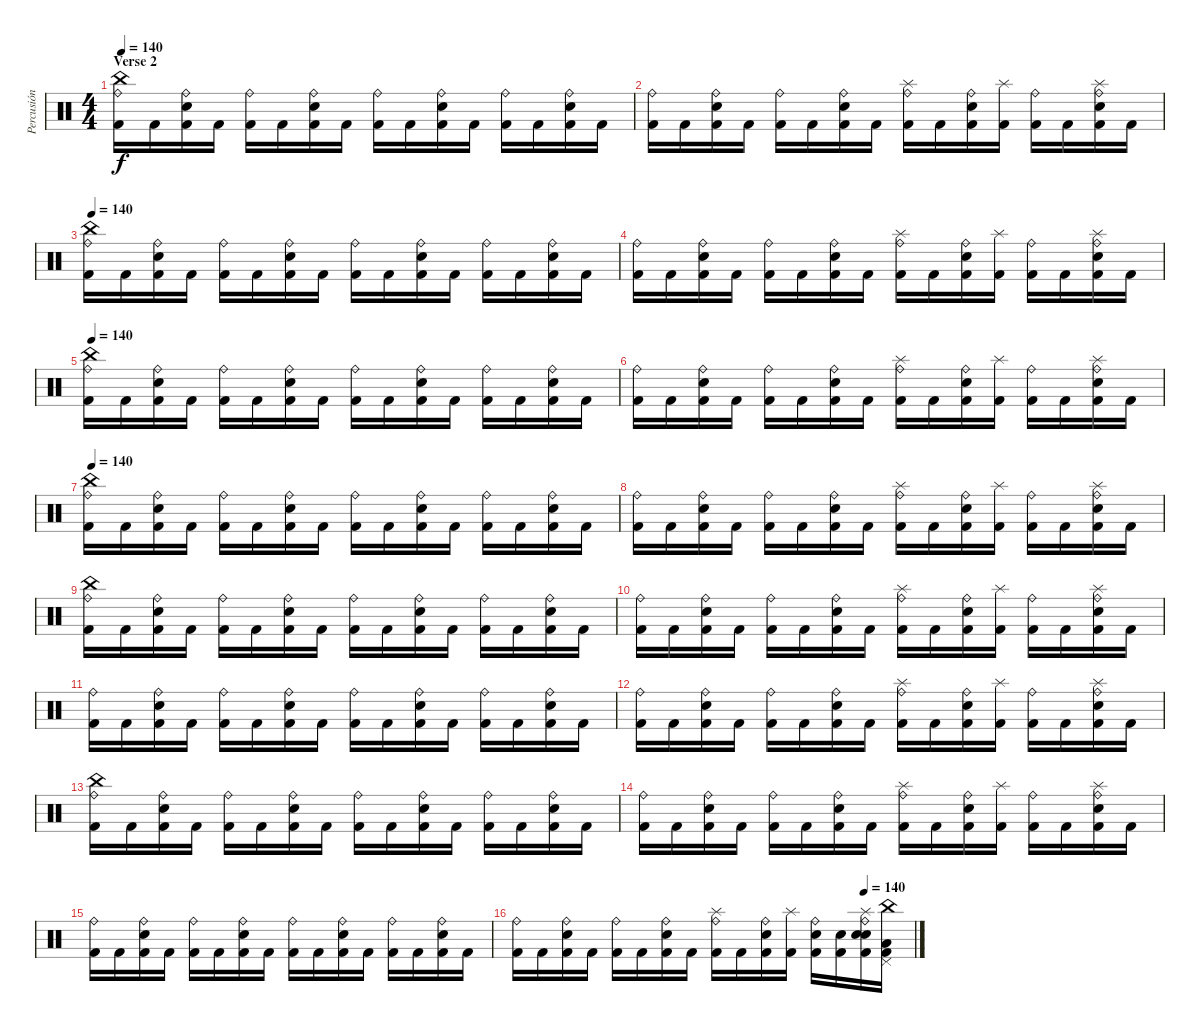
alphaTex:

\track ("Percusión" "Percusión") {instrument percussion}
\staff {score}
\articulation defaults
\ts (4 4)
\section ("" "Verse 2")
\tempo 140
\clef neutral
\ks c
("Ride (bell)" "Kick (hit) 2" "China (hit)").16{dy f} "Kick (hit) 2".16 ("Ride (bell)" "Electric Snare (hit)" "Kick (hit) 2").16 "Kick (hit) 2".16 ("Ride (bell)" "Kick (hit) 2").16 "Kick (hit) 2".16 ("Ride (bell)" "Electric Snare (hit)" "Kick (hit) 2").16 "Kick (hit) 2".16 ("Ride (bell)" "Kick (hit) 2").16 "Kick (hit) 2".16 ("Ride (bell)" "Electric Snare (hit)" "Kick (hit) 2").16 "Kick (hit) 2".16 ("Ride (bell)" "Kick (hit) 2").16 "Kick (hit) 2".16 ("Ride (bell)" "Electric Snare (hit)" "Kick (hit) 2").16 "Kick (hit) 2".16 |
("Ride (bell)" "Kick (hit) 2").16 "Kick (hit) 2".16 ("Ride (bell)" "Electric Snare (hit)" "Kick (hit) 2").16 "Kick (hit) 2".16 ("Ride (bell)" "Kick (hit) 2").16 "Kick (hit) 2".16 ("Ride (bell)" "Electric Snare (hit)" "Kick (hit) 2").16 "Kick (hit) 2".16 ("Ride (bell)" "Kick (hit) 2" "Splash (hit)").16 "Kick (hit) 2".16 ("Ride (bell)" "Electric Snare (hit)" "Kick (hit) 2").16 ("Kick (hit) 2" "Splash (hit)").16 ("Ride (bell)" "Kick (hit) 2").16 "Kick (hit) 2".16 ("Ride (bell)" "Electric Snare (hit)" "Kick (hit) 2" "Splash (hit)").16 "Kick (hit) 2".16 |
\tempo 140
("Ride (bell)" "Kick (hit) 2" "China (hit)").16 "Kick (hit) 2".16 ("Ride (bell)" "Electric Snare (hit)" "Kick (hit) 2").16 "Kick (hit) 2".16 ("Ride (bell)" "Kick (hit) 2").16 "Kick (hit) 2".16 ("Ride (bell)" "Electric Snare (hit)" "Kick (hit) 2").16 "Kick (hit) 2".16 ("Ride (bell)" "Kick (hit) 2").16 "Kick (hit) 2".16 ("Ride (bell)" "Electric Snare (hit)" "Kick (hit) 2").16 "Kick (hit) 2".16 ("Ride (bell)" "Kick (hit) 2").16 "Kick (hit) 2".16 ("Ride (bell)" "Electric Snare (hit)" "Kick (hit) 2").16 "Kick (hit) 2".16 |
("Ride (bell)" "Kick (hit) 2").16 "Kick (hit) 2".16 ("Ride (bell)" "Electric Snare (hit)" "Kick (hit) 2").16 "Kick (hit) 2".16 ("Ride (bell)" "Kick (hit) 2").16 "Kick (hit) 2".16 ("Ride (bell)" "Electric Snare (hit)" "Kick (hit) 2").16 "Kick (hit) 2".16 ("Ride (bell)" "Kick (hit) 2" "Splash (hit)").16 "Kick (hit) 2".16 ("Ride (bell)" "Electric Snare (hit)" "Kick (hit) 2").16 ("Kick (hit) 2" "Splash (hit)").16 ("Ride (bell)" "Kick (hit) 2").16 "Kick (hit) 2".16 ("Ride (bell)" "Electric Snare (hit)" "Kick (hit) 2" "Splash (hit)").16 "Kick (hit) 2".16 |
\tempo 140
("Ride (bell)" "Kick (hit) 2" "China (hit)").16 "Kick (hit) 2".16 ("Ride (bell)" "Electric Snare (hit)" "Kick (hit) 2").16 "Kick (hit) 2".16 ("Ride (bell)" "Kick (hit) 2").16 "Kick (hit) 2".16 ("Ride (bell)" "Electric Snare (hit)" "Kick (hit) 2").16 "Kick (hit) 2".16 ("Ride (bell)" "Kick (hit) 2").16 "Kick (hit) 2".16 ("Ride (bell)" "Electric Snare (hit)" "Kick (hit) 2").16 "Kick (hit) 2".16 ("Ride (bell)" "Kick (hit) 2").16 "Kick (hit) 2".16 ("Ride (bell)" "Electric Snare (hit)" "Kick (hit) 2").16 "Kick (hit) 2".16 |
("Ride (bell)" "Kick (hit) 2").16 "Kick (hit) 2".16 ("Ride (bell)" "Electric Snare (hit)" "Kick (hit) 2").16 "Kick (hit) 2".16 ("Ride (bell)" "Kick (hit) 2").16 "Kick (hit) 2".16 ("Ride (bell)" "Electric Snare (hit)" "Kick (hit) 2").16 "Kick (hit) 2".16 ("Ride (bell)" "Kick (hit) 2" "Splash (hit)").16 "Kick (hit) 2".16 ("Ride (bell)" "Electric Snare (hit)" "Kick (hit) 2").16 ("Kick (hit) 2" "Splash (hit)").16 ("Ride (bell)" "Kick (hit) 2").16 "Kick (hit) 2".16 ("Ride (bell)" "Electric Snare (hit)" "Kick (hit) 2" "Splash (hit)").16 "Kick (hit) 2".16 |
\tempo 140
("Ride (bell)" "Kick (hit) 2" "China (hit)").16 "Kick (hit) 2".16 ("Ride (bell)" "Electric Snare (hit)" "Kick (hit) 2").16 "Kick (hit) 2".16 ("Ride (bell)" "Kick (hit) 2").16 "Kick (hit) 2".16 ("Ride (bell)" "Electric Snare (hit)" "Kick (hit) 2").16 "Kick (hit) 2".16 ("Ride (bell)" "Kick (hit) 2").16 "Kick (hit) 2".16 ("Ride (bell)" "Electric Snare (hit)" "Kick (hit) 2").16 "Kick (hit) 2".16 ("Ride (bell)" "Kick (hit) 2").16 "Kick (hit) 2".16 ("Ride (bell)" "Electric Snare (hit)" "Kick (hit) 2").16 "Kick (hit) 2".16 |
("Ride (bell)" "Kick (hit) 2").16 "Kick (hit) 2".16 ("Ride (bell)" "Electric Snare (hit)" "Kick (hit) 2").16 "Kick (hit) 2".16 ("Ride (bell)" "Kick (hit) 2").16 "Kick (hit) 2".16 ("Ride (bell)" "Electric Snare (hit)" "Kick (hit) 2").16 "Kick (hit) 2".16 ("Ride (bell)" "Kick (hit) 2" "Splash (hit)").16 "Kick (hit) 2".16 ("Ride (bell)" "Electric Snare (hit)" "Kick (hit) 2").16 ("Kick (hit) 2" "Splash (hit)").16 ("Ride (bell)" "Kick (hit) 2").16 "Kick (hit) 2".16 ("Ride (bell)" "Electric Snare (hit)" "Kick (hit) 2" "Splash (hit)").16 "Kick (hit) 2".16 |
("Ride (bell)" "Kick (hit) 2" "China (hit)").16 "Kick (hit) 2".16 ("Ride (bell)" "Electric Snare (hit)" "Kick (hit) 2").16 "Kick (hit) 2".16 ("Ride (bell)" "Kick (hit) 2").16 "Kick (hit) 2".16 ("Ride (bell)" "Electric Snare (hit)" "Kick (hit) 2").16 "Kick (hit) 2".16 ("Ride (bell)" "Kick (hit) 2").16 "Kick (hit) 2".16 ("Ride (bell)" "Electric Snare (hit)" "Kick (hit) 2").16 "Kick (hit) 2".16 ("Ride (bell)" "Kick (hit) 2").16 "Kick (hit) 2".16 ("Ride (bell)" "Electric Snare (hit)" "Kick (hit) 2").16 "Kick (hit) 2".16 |
("Ride (bell)" "Kick (hit) 2").16 "Kick (hit) 2".16 ("Ride (bell)" "Electric Snare (hit)" "Kick (hit) 2").16 "Kick (hit) 2".16 ("Ride (bell)" "Kick (hit) 2").16 "Kick (hit) 2".16 ("Ride (bell)" "Electric Snare (hit)" "Kick (hit) 2").16 "Kick (hit) 2".16 ("Ride (bell)" "Kick (hit) 2" "Splash (hit)").16 "Kick (hit) 2".16 ("Ride (bell)" "Electric Snare (hit)" "Kick (hit) 2").16 ("Kick (hit) 2" "Splash (hit)").16 ("Ride (bell)" "Kick (hit) 2").16 "Kick (hit) 2".16 ("Ride (bell)" "Electric Snare (hit)" "Kick (hit) 2" "Splash (hit)").16 "Kick (hit) 2".16 |
("Ride (bell)" "Kick (hit) 2").16 "Kick (hit) 2".16 ("Ride (bell)" "Electric Snare (hit)" "Kick (hit) 2").16 "Kick (hit) 2".16 ("Ride (bell)" "Kick (hit) 2").16 "Kick (hit) 2".16 ("Ride (bell)" "Electric Snare (hit)" "Kick (hit) 2").16 "Kick (hit) 2".16 ("Ride (bell)" "Kick (hit) 2").16 "Kick (hit) 2".16 ("Ride (bell)" "Electric Snare (hit)" "Kick (hit) 2").16 "Kick (hit) 2".16 ("Ride (bell)" "Kick (hit) 2").16 "Kick (hit) 2".16 ("Ride (bell)" "Electric Snare (hit)" "Kick (hit) 2").16 "Kick (hit) 2".16 |
("Ride (bell)" "Kick (hit) 2").16 "Kick (hit) 2".16 ("Ride (bell)" "Electric Snare (hit)" "Kick (hit) 2").16 "Kick (hit) 2".16 ("Ride (bell)" "Kick (hit) 2").16 "Kick (hit) 2".16 ("Ride (bell)" "Electric Snare (hit)" "Kick (hit) 2").16 "Kick (hit) 2".16 ("Ride (bell)" "Kick (hit) 2" "Splash (hit)").16 "Kick (hit) 2".16 ("Ride (bell)" "Electric Snare (hit)" "Kick (hit) 2").16 ("Kick (hit) 2" "Splash (hit)").16 ("Ride (bell)" "Kick (hit) 2").16 "Kick (hit) 2".16 ("Ride (bell)" "Electric Snare (hit)" "Kick (hit) 2" "Splash (hit)").16 "Kick (hit) 2".16 |
("Ride (bell)" "Kick (hit) 2" "China (hit)").16 "Kick (hit) 2".16 ("Ride (bell)" "Electric Snare (hit)" "Kick (hit) 2").16 "Kick (hit) 2".16 ("Ride (bell)" "Kick (hit) 2").16 "Kick (hit) 2".16 ("Ride (bell)" "Electric Snare (hit)" "Kick (hit) 2").16 "Kick (hit) 2".16 ("Ride (bell)" "Kick (hit) 2").16 "Kick (hit) 2".16 ("Ride (bell)" "Electric Snare (hit)" "Kick (hit) 2").16 "Kick (hit) 2".16 ("Ride (bell)" "Kick (hit) 2").16 "Kick (hit) 2".16 ("Ride (bell)" "Electric Snare (hit)" "Kick (hit) 2").16 "Kick (hit) 2".16 |
("Ride (bell)" "Kick (hit) 2").16 "Kick (hit) 2".16 ("Ride (bell)" "Electric Snare (hit)" "Kick (hit) 2").16 "Kick (hit) 2".16 ("Ride (bell)" "Kick (hit) 2").16 "Kick (hit) 2".16 ("Ride (bell)" "Electric Snare (hit)" "Kick (hit) 2").16 "Kick (hit) 2".16 ("Ride (bell)" "Kick (hit) 2" "Splash (hit)").16 "Kick (hit) 2".16 ("Ride (bell)" "Electric Snare (hit)" "Kick (hit) 2").16 ("Kick (hit) 2" "Splash (hit)").16 ("Ride (bell)" "Kick (hit) 2").16 "Kick (hit) 2".16 ("Ride (bell)" "Electric Snare (hit)" "Kick (hit) 2" "Splash (hit)").16 "Kick (hit) 2".16 |
("Ride (bell)" "Kick (hit) 2").16 "Kick (hit) 2".16 ("Ride (bell)" "Electric Snare (hit)" "Kick (hit) 2").16 "Kick (hit) 2".16 ("Ride (bell)" "Kick (hit) 2").16 "Kick (hit) 2".16 ("Ride (bell)" "Electric Snare (hit)" "Kick (hit) 2").16 "Kick (hit) 2".16 ("Ride (bell)" "Kick (hit) 2").16 "Kick (hit) 2".16 ("Ride (bell)" "Electric Snare (hit)" "Kick (hit) 2").16 "Kick (hit) 2".16 ("Ride (bell)" "Kick (hit) 2").16 "Kick (hit) 2".16 ("Ride (bell)" "Electric Snare (hit)" "Kick (hit) 2").16 "Kick (hit) 2".16 |
\tempo (140 0.875)
("Ride (bell)" "Kick (hit) 2").16 "Kick (hit) 2".16 ("Ride (bell)" "Electric Snare (hit)" "Kick (hit) 2").16 "Kick (hit) 2".16 ("Ride (bell)" "Kick (hit) 2").16 "Kick (hit) 2".16 ("Ride (bell)" "Electric Snare (hit)" "Kick (hit) 2").16 "Kick (hit) 2".16 ("Ride (bell)" "Kick (hit) 2" "Splash (hit)").16 "Kick (hit) 2".16 ("Ride (bell)" "Electric Snare (hit)" "Kick (hit) 2").16 ("Kick (hit) 2" "Splash (hit)").16 ("Ride (bell)" "Electric Snare (hit)" "Kick (hit) 2").16 ("Electric Snare (hit)" "Kick (hit) 2").16 ("Ride (bell)" "Electric Snare (hit)" "Electric Snare (hit)" "Kick (hit) 2" "Splash (hit)").16 ("Pedal Hi-Hat (hit)" "Low Tom (hit)" "Kick (hit) 2" "China (hit)").16
